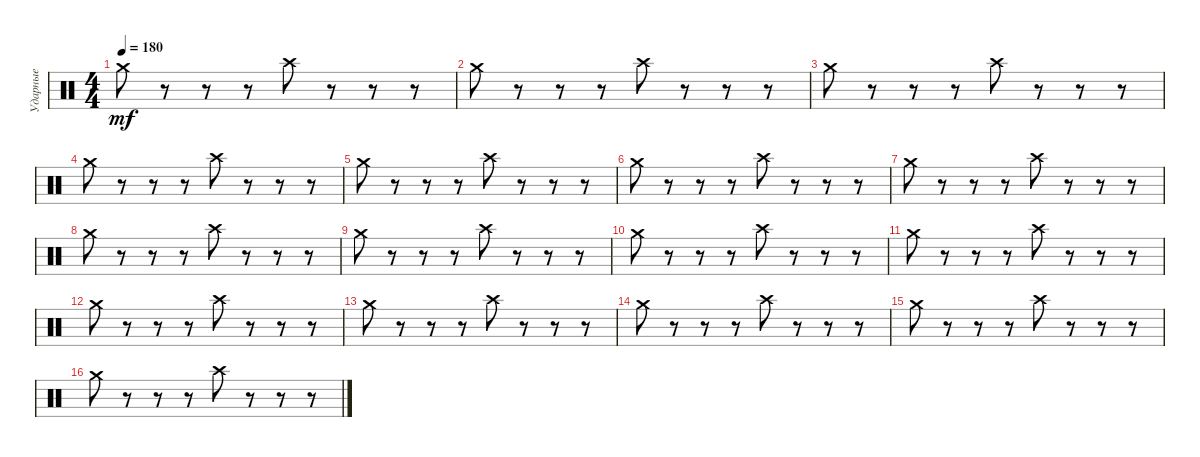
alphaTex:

\track ("Ударные" "Ударные") {instrument percussion}
\staff {score}
\articulation defaults
\ts (4 4)
\tempo 180
\clef neutral
\ks c "Crash medium (hit)".8{dy mf}
r.8 r.8 r.8 "Crash high (hit)".8 r.8 r.8 r.8 |
"Crash medium (hit)".8 r.8 r.8 r.8 "Crash high (hit)".8 r.8 r.8 r.8 |
"Crash medium (hit)".8 r.8 r.8 r.8 "Crash high (hit)".8 r.8 r.8 r.8 |
"Crash medium (hit)".8 r.8 r.8 r.8 "Crash high (hit)".8 r.8 r.8 r.8 |
"Crash medium (hit)".8 r.8 r.8 r.8 "Crash high (hit)".8 r.8 r.8 r.8 |
"Crash medium (hit)".8 r.8 r.8 r.8 "Crash high (hit)".8 r.8 r.8 r.8 |
"Crash medium (hit)".8 r.8 r.8 r.8 "Crash high (hit)".8 r.8 r.8 r.8 |
"Crash medium (hit)".8 r.8 r.8 r.8 "Crash high (hit)".8 r.8 r.8 r.8 |
"Crash medium (hit)".8 r.8 r.8 r.8 "Crash high (hit)".8 r.8 r.8 r.8 |
"Crash medium (hit)".8 r.8 r.8 r.8 "Crash high (hit)".8 r.8 r.8 r.8 |
"Crash medium (hit)".8 r.8 r.8 r.8 "Crash high (hit)".8 r.8 r.8 r.8 |
"Crash medium (hit)".8 r.8 r.8 r.8 "Crash high (hit)".8 r.8 r.8 r.8 |
"Crash medium (hit)".8 r.8 r.8 r.8 "Crash high (hit)".8 r.8 r.8 r.8 |
"Crash medium (hit)".8 r.8 r.8 r.8 "Crash high (hit)".8 r.8 r.8 r.8 |
"Crash medium (hit)".8 r.8 r.8 r.8 "Crash high (hit)".8 r.8 r.8 r.8 |
"Crash medium (hit)".8 r.8 r.8 r.8 "Crash high (hit)".8 r.8 r.8 r.8
